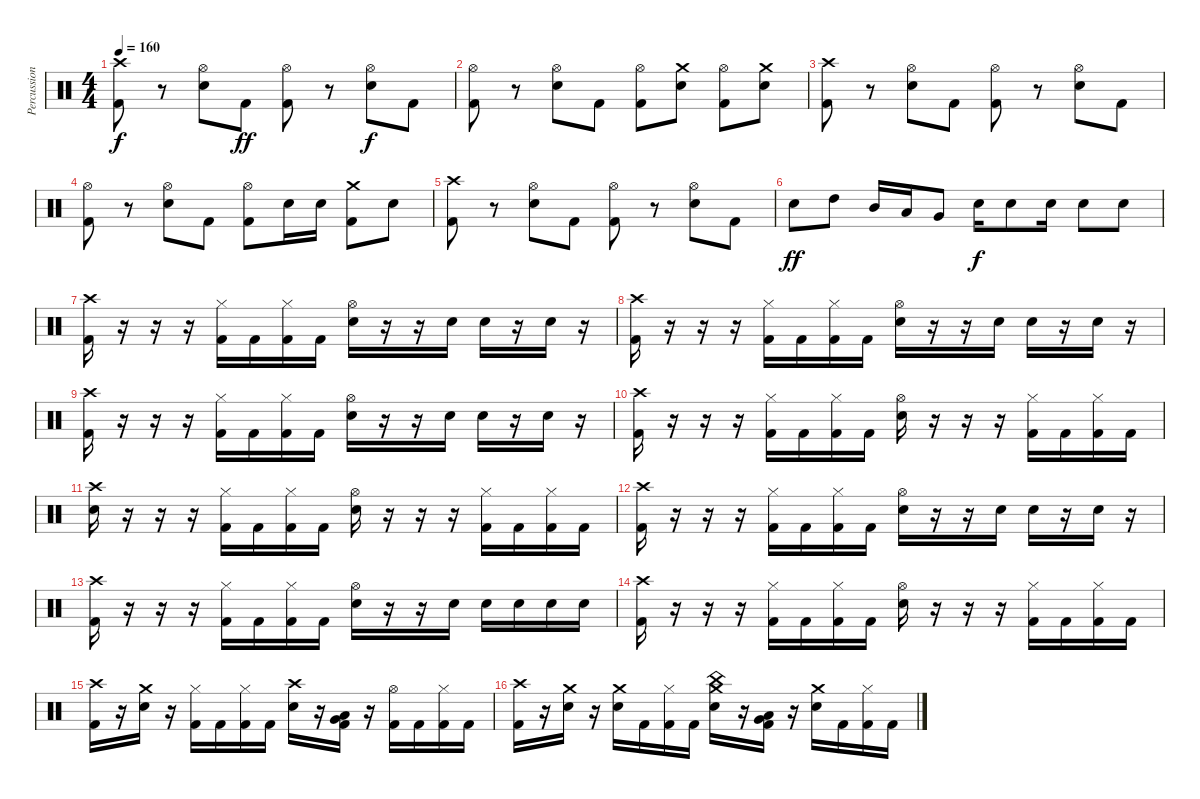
\track ("Percussion" "Percussion") {instrument percussion}
\staff {score}
\articulation defaults
\ts (4 4)
\tempo 160
\clef neutral
\ks c
("Crash high (hit)" "Kick (hit) 2").8{dy f} r.8 ("Hi-Hat (open)" "Snare (hit) 2").8 "Kick (hit) 2".8{dy ff} ("Hi-Hat (open)" "Kick (hit) 2").8 r.8 ("Hi-Hat (open)" "Snare (hit) 2").8{dy f} "Kick (hit) 2".8 |
("Hi-Hat (open)" "Kick (hit) 2").8 r.8 ("Hi-Hat (open)" "Snare (hit) 2").8 "Kick (hit) 2".8 ("Hi-Hat (open)" "Kick (hit) 2").8 ("Crash medium (hit)" "Snare (hit) 2").8 ("Hi-Hat (open)" "Kick (hit) 2").8 ("Crash medium (hit)" "Snare (hit) 2").8 |
("Crash high (hit)" "Kick (hit) 2").8 r.8 ("Hi-Hat (open)" "Snare (hit) 2").8 "Kick (hit) 2".8 ("Hi-Hat (open)" "Kick (hit) 2").8 r.8 ("Hi-Hat (open)" "Snare (hit) 2").8 "Kick (hit) 2".8 |
("Hi-Hat (open)" "Kick (hit) 2").8 r.8 ("Hi-Hat (open)" "Snare (hit) 2").8 "Kick (hit) 2".8 ("Hi-Hat (open)" "Kick (hit) 2").8 "Snare (hit) 2".16 "Snare (hit) 2".16 ("Crash medium (hit)" "Kick (hit) 2").8 "Snare (hit) 2".8 |
("Crash high (hit)" "Kick (hit) 2").8 r.8 ("Hi-Hat (open)" "Snare (hit) 2").8 "Kick (hit) 2".8 ("Hi-Hat (open)" "Kick (hit) 2").8 r.8 ("Hi-Hat (open)" "Snare (hit) 2").8 "Kick (hit) 2".8 |
"Snare (hit) 2".8{dy ff} "High Tom (hit)".8 "Mid Tom (hit)".16 "Low Tom (hit)".16 "Very Low Tom (hit)".8 "Snare (hit) 2".16{dy f} "Snare (hit) 2".8 "Snare (hit) 2".16 "Snare (hit) 2".8 "Snare (hit) 2".8 |
("Crash high (hit)" "Kick (hit) 2").16 r.16 r.16 r.16 ("Hi-Hat (closed)" "Kick (hit) 2").16 "Kick (hit) 2".16 ("Hi-Hat (closed)" "Kick (hit) 2").16 "Kick (hit) 2".16 ("Hi-Hat (open)" "Snare (hit) 2").16 r.16 r.16 "Snare (hit) 2".16 "Snare (hit) 2".16 r.16 "Snare (hit) 2".16 r.16 |
("Crash high (hit)" "Kick (hit) 2").16 r.16 r.16 r.16 ("Hi-Hat (closed)" "Kick (hit) 2").16 "Kick (hit) 2".16 ("Hi-Hat (closed)" "Kick (hit) 2").16 "Kick (hit) 2".16 ("Hi-Hat (open)" "Snare (hit) 2").16 r.16 r.16 "Snare (hit) 2".16 "Snare (hit) 2".16 r.16 "Snare (hit) 2".16 r.16 |
("Crash high (hit)" "Kick (hit) 2").16 r.16 r.16 r.16 ("Hi-Hat (closed)" "Kick (hit) 2").16 "Kick (hit) 2".16 ("Hi-Hat (closed)" "Kick (hit) 2").16 "Kick (hit) 2".16 ("Hi-Hat (open)" "Snare (hit) 2").16 r.16 r.16 "Snare (hit) 2".16 "Snare (hit) 2".16 r.16 "Snare (hit) 2".16 r.16 |
("Crash high (hit)" "Kick (hit) 2").16 r.16 r.16 r.16 ("Hi-Hat (closed)" "Kick (hit) 2").16 "Kick (hit) 2".16 ("Hi-Hat (closed)" "Kick (hit) 2").16 "Kick (hit) 2".16 ("Hi-Hat (open)" "Snare (hit) 2").16 r.16 r.16 r.16 ("Hi-Hat (closed)" "Kick (hit) 2").16 "Kick (hit) 2".16 ("Hi-Hat (closed)" "Kick (hit) 2").16 "Kick (hit) 2".16 |
("Crash high (hit)" "Snare (hit) 2").16 r.16 r.16 r.16 ("Hi-Hat (closed)" "Kick (hit) 2").16 "Kick (hit) 2".16 ("Hi-Hat (closed)" "Kick (hit) 2").16 "Kick (hit) 2".16 ("Hi-Hat (open)" "Snare (hit) 2").16 r.16 r.16 r.16 ("Hi-Hat (closed)" "Kick (hit) 2").16 "Kick (hit) 2".16 ("Hi-Hat (closed)" "Kick (hit) 2").16 "Kick (hit) 2".16 |
("Crash high (hit)" "Kick (hit) 2").16 r.16 r.16 r.16 ("Hi-Hat (closed)" "Kick (hit) 2").16 "Kick (hit) 2".16 ("Hi-Hat (closed)" "Kick (hit) 2").16 "Kick (hit) 2".16 ("Hi-Hat (open)" "Snare (hit) 2").16 r.16 r.16 "Snare (hit) 2".16 "Snare (hit) 2".16 r.16 "Snare (hit) 2".16 r.16 |
("Crash high (hit)" "Kick (hit) 2").16 r.16 r.16 r.16 ("Hi-Hat (closed)" "Kick (hit) 2").16 "Kick (hit) 2".16 ("Hi-Hat (closed)" "Kick (hit) 2").16 "Kick (hit) 2".16 ("Hi-Hat (open)" "Snare (hit) 2").16 r.16 r.16 "Snare (hit) 2".16 "Snare (hit) 2".16 "Snare (hit) 2".16 "Snare (hit) 2".16 "Snare (hit) 2".16 |
("Crash high (hit)" "Kick (hit) 2").16 r.16 r.16 r.16 ("Hi-Hat (closed)" "Kick (hit) 2").16 "Kick (hit) 2".16 ("Hi-Hat (closed)" "Kick (hit) 2").16 "Kick (hit) 2".16 ("Hi-Hat (open)" "Snare (hit) 2").16 r.16 r.16 r.16 ("Hi-Hat (closed)" "Kick (hit) 2").16 "Kick (hit) 2".16 ("Hi-Hat (closed)" "Kick (hit) 2").16 "Kick (hit) 2".16 |
("Crash high (hit)" "Kick (hit) 2").16 r.16 ("Crash medium (hit)" "Snare (hit) 2").16 r.16 ("Hi-Hat (closed)" "Kick (hit) 2").16 "Kick (hit) 2".16 ("Hi-Hat (closed)" "Kick (hit) 2").16 "Kick (hit) 2".16 ("Crash high (hit)" "Snare (hit) 2").16 r.16 ("Very Low Tom (hit)" "Low Floor Tom (hit)" "Kick (hit) 2").16 r.16 ("Hi-Hat (open)" "Kick (hit) 2").16 "Kick (hit) 2".16 ("Hi-Hat (closed)" "Kick (hit) 2").16 "Kick (hit) 2".16 |
("Crash high (hit)" "Kick (hit) 2").16 r.16 ("Crash medium (hit)" "Snare (hit) 2").16 r.16 ("Crash medium (hit)" "Snare (hit) 2").16 "Kick (hit) 2".16 ("Hi-Hat (closed)" "Kick (hit) 2").16 "Kick (hit) 2".16 ("China (hit)" "Crash medium (hit)" "Snare (hit) 2").16 r.16 ("Very Low Tom (hit)" "Low Floor Tom (hit)" "Kick (hit) 2").16 r.16 ("Crash medium (hit)" "Snare (hit) 2").16 "Kick (hit) 2".16 ("Hi-Hat (closed)" "Kick (hit) 2").16 "Kick (hit) 2".16
